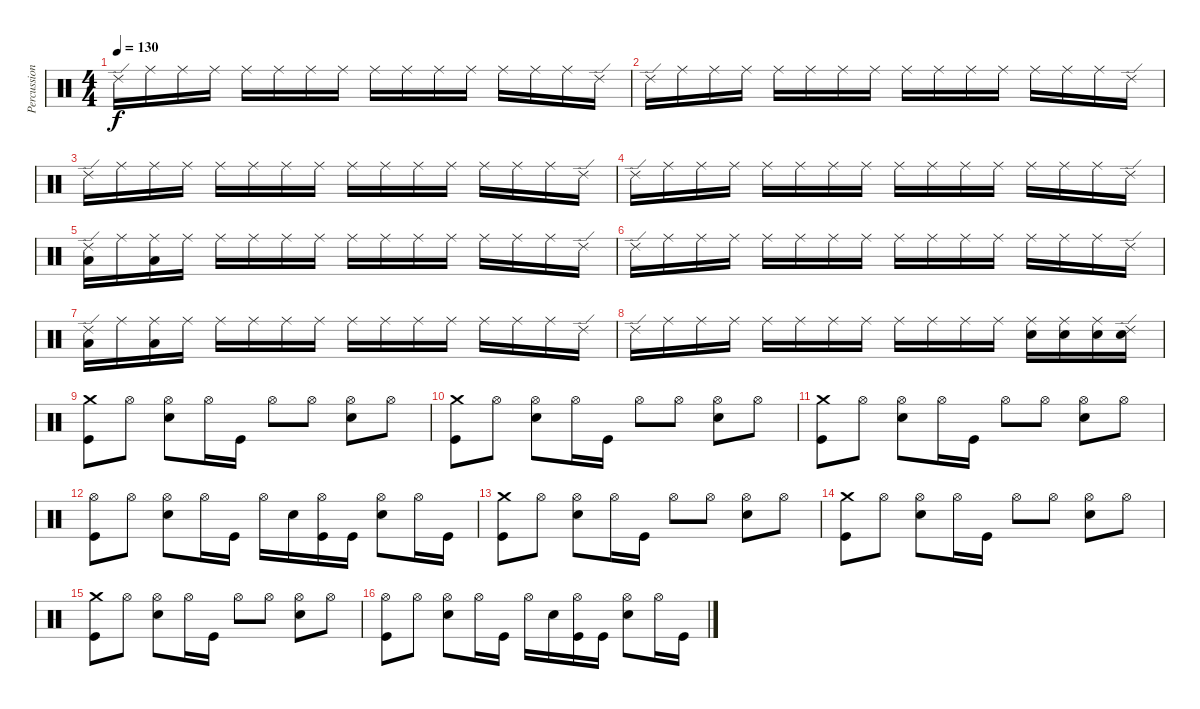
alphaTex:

\track ("Percussion" "Percussion") {instrument percussion}
\staff {score}
\articulation defaults
\ts (4 4)
\tempo 130
\clef neutral
\ks c "Ride (edge) 2".16{dy f} "Ride (middle)".16 "Ride (middle)".16 "Ride (middle)".16 "Ride (middle)".16 "Ride (middle)".16 "Ride (middle)".16 "Ride (middle)".16 "Ride (middle)".16 "Ride (middle)".16 "Ride (middle)".16 "Ride (middle)".16 "Ride (middle)".16 "Ride (middle)".16 "Ride (middle)".16 "Ride (edge) 2".16
|
"Ride (edge) 2".16 "Ride (middle)".16 "Ride (middle)".16 "Ride (middle)".16 "Ride (middle)".16 "Ride (middle)".16 "Ride (middle)".16 "Ride (middle)".16 "Ride (middle)".16 "Ride (middle)".16 "Ride (middle)".16 "Ride (middle)".16 "Ride (middle)".16 "Ride (middle)".16 "Ride (middle)".16 "Ride (edge) 2".16 |
"Ride (edge) 2".16 "Ride (middle)".16 "Ride (middle)".16 "Ride (middle)".16 "Ride (middle)".16 "Ride (middle)".16 "Ride (middle)".16 "Ride (middle)".16 "Ride (middle)".16 "Ride (middle)".16 "Ride (middle)".16 "Ride (middle)".16 "Ride (middle)".16 "Ride (middle)".16 "Ride (middle)".16 "Ride (edge) 2".16 |
"Ride (edge) 2".16 "Ride (middle)".16 "Ride (middle)".16 "Ride (middle)".16 "Ride (middle)".16 "Ride (middle)".16 "Ride (middle)".16 "Ride (middle)".16 "Ride (middle)".16 "Ride (middle)".16 "Ride (middle)".16 "Ride (middle)".16 "Ride (middle)".16 "Ride (middle)".16 "Ride (middle)".16 "Ride (edge) 2".16 |
("Low Floor Tom (hit)" "Ride (edge) 2").16 "Ride (middle)".16 ("Low Floor Tom (hit)" "Ride (middle)").16 "Ride (middle)".16 "Ride (middle)".16 "Ride (middle)".16 "Ride (middle)".16 "Ride (middle)".16 "Ride (middle)".16 "Ride (middle)".16 "Ride (middle)".16 "Ride (middle)".16 "Ride (middle)".16 "Ride (middle)".16 "Ride (middle)".16 "Ride (edge) 2".16 |
"Ride (edge) 2".16 "Ride (middle)".16 "Ride (middle)".16 "Ride (middle)".16 "Ride (middle)".16 "Ride (middle)".16 "Ride (middle)".16 "Ride (middle)".16 "Ride (middle)".16 "Ride (middle)".16 "Ride (middle)".16 "Ride (middle)".16 "Ride (middle)".16 "Ride (middle)".16 "Ride (middle)".16 "Ride (edge) 2".16 |
("Low Floor Tom (hit)" "Ride (edge) 2").16 "Ride (middle)".16 ("Low Floor Tom (hit)" "Ride (middle)").16 "Ride (middle)".16 "Ride (middle)".16 "Ride (middle)".16 "Ride (middle)".16 "Ride (middle)".16 "Ride (middle)".16 "Ride (middle)".16 "Ride (middle)".16 "Ride (middle)".16 "Ride (middle)".16 "Ride (middle)".16 "Ride (middle)".16 "Ride (edge) 2".16 |
"Ride (edge) 2".16 "Ride (middle)".16 "Ride (middle)".16 "Ride (middle)".16 "Ride (middle)".16 "Ride (middle)".16 "Ride (middle)".16 "Ride (middle)".16 "Ride (middle)".16 "Ride (middle)".16 "Ride (middle)".16 "Ride (middle)".16 ("Electric Snare (hit)" "Ride (middle)").16 ("Electric Snare (hit)" "Ride (middle)").16 ("Electric Snare (hit)" "Ride (middle)").16 ("Electric Snare (hit)" "Ride (edge) 2").16 |
("Kick (hit)" "Crash medium (hit)").8 "Hi-Hat (open)".8 ("Hi-Hat (open)" "Electric Snare (hit)").8 "Hi-Hat (open)".16 "Kick (hit)".16 "Hi-Hat (open)".8 "Hi-Hat (open)".8 ("Hi-Hat (open)" "Electric Snare (hit)").8 "Hi-Hat (open)".8 |
("Kick (hit)" "Crash medium (hit)").8 "Hi-Hat (open)".8 ("Hi-Hat (open)" "Electric Snare (hit)").8 "Hi-Hat (open)".16 "Kick (hit)".16 "Hi-Hat (open)".8 "Hi-Hat (open)".8 ("Hi-Hat (open)" "Electric Snare (hit)").8 "Hi-Hat (open)".8 |
("Kick (hit)" "Crash medium (hit)").8 "Hi-Hat (open)".8 ("Hi-Hat (open)" "Electric Snare (hit)").8 "Hi-Hat (open)".16 "Kick (hit)".16 "Hi-Hat (open)".8 "Hi-Hat (open)".8 ("Hi-Hat (open)" "Electric Snare (hit)").8 "Hi-Hat (open)".8 |
("Kick (hit)" "Hi-Hat (open)").8 "Hi-Hat (open)".8 ("Hi-Hat (open)" "Electric Snare (hit)").8 "Hi-Hat (open)".16 "Kick (hit)".16 "Hi-Hat (open)".16 "Electric Snare (hit)".16 ("Kick (hit)" "Hi-Hat (open)").16 "Kick (hit)".16 ("Hi-Hat (open)" "Electric Snare (hit)").8 "Hi-Hat (open)".16 "Kick (hit)".16 |
("Kick (hit)" "Crash medium (hit)").8 "Hi-Hat (open)".8 ("Hi-Hat (open)" "Electric Snare (hit)").8 "Hi-Hat (open)".16 "Kick (hit)".16 "Hi-Hat (open)".8 "Hi-Hat (open)".8 ("Hi-Hat (open)" "Electric Snare (hit)").8 "Hi-Hat (open)".8 |
("Kick (hit)" "Crash medium (hit)").8 "Hi-Hat (open)".8 ("Hi-Hat (open)" "Electric Snare (hit)").8 "Hi-Hat (open)".16 "Kick (hit)".16 "Hi-Hat (open)".8 "Hi-Hat (open)".8 ("Hi-Hat (open)" "Electric Snare (hit)").8 "Hi-Hat (open)".8 |
("Kick (hit)" "Crash medium (hit)").8 "Hi-Hat (open)".8 ("Hi-Hat (open)" "Electric Snare (hit)").8 "Hi-Hat (open)".16 "Kick (hit)".16 "Hi-Hat (open)".8 "Hi-Hat (open)".8 ("Hi-Hat (open)" "Electric Snare (hit)").8 "Hi-Hat (open)".8 |
("Kick (hit)" "Hi-Hat (open)").8 "Hi-Hat (open)".8 ("Hi-Hat (open)" "Electric Snare (hit)").8 "Hi-Hat (open)".16 "Kick (hit)".16 "Hi-Hat (open)".16 "Electric Snare (hit)".16 ("Kick (hit)" "Hi-Hat (open)").16 "Kick (hit)".16 ("Hi-Hat (open)" "Electric Snare (hit)").8 "Hi-Hat (open)".16 "Kick (hit)".16
